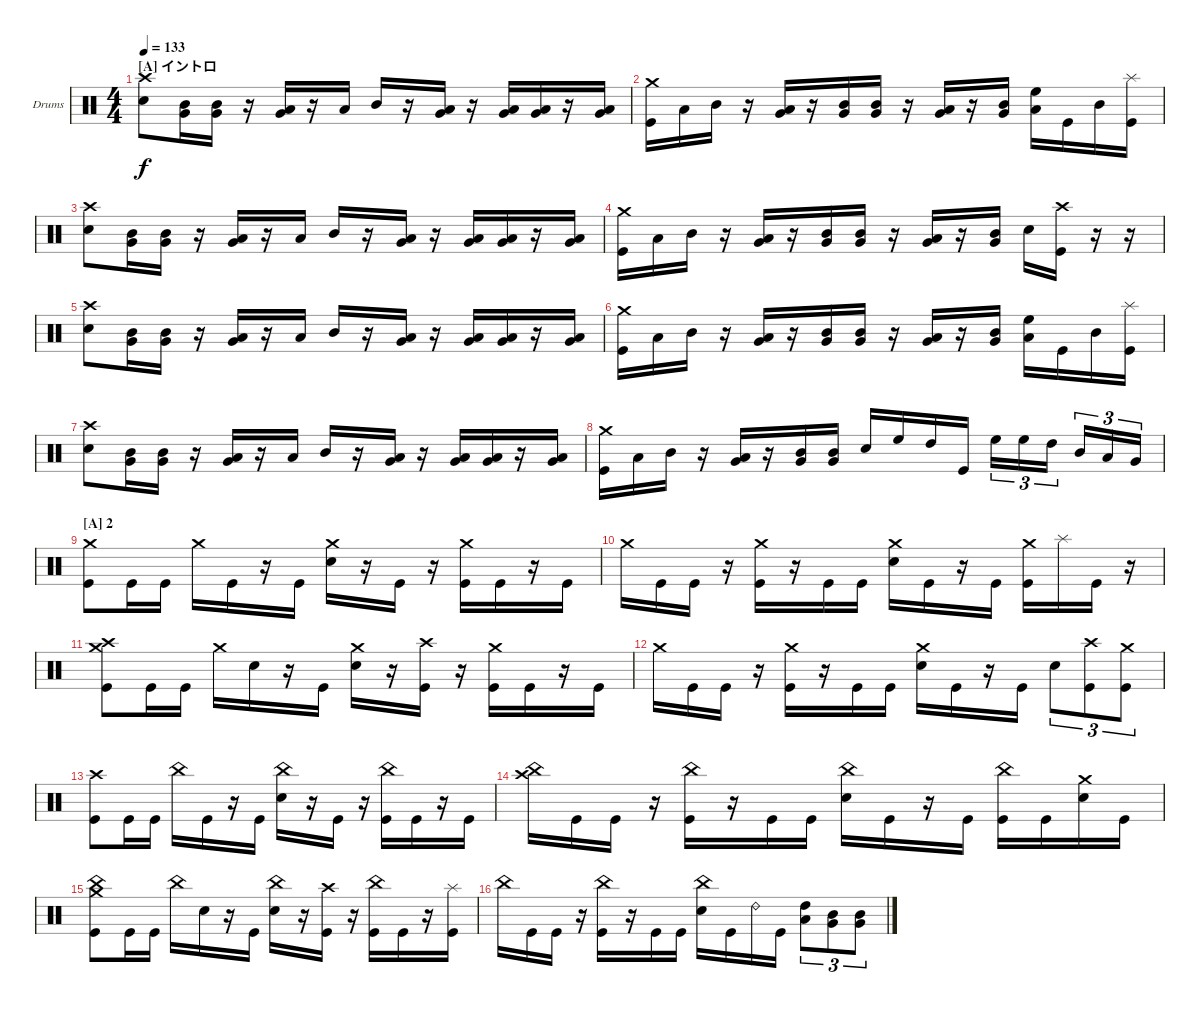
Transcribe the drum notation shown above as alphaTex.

\bracketExtendMode groupsimilarinstruments
\firstSystemTrackNameOrientation horizontal
\otherSystemsTrackNameOrientation horizontal
\track ("Ben Kazenoff" "Drums") {instrument percussion}
\staff {score}
\articulation defaults
\ts (4 4)
\beaming (8 2 2 2 2)
\section ("A" "イントロ")
\tempo 133
\clef neutral
\ks c
("Crash high (hit)" "Snare (hit) 2").8{dy f} ("Mid Tom (hit)" "Very Low Tom (hit)").16 ("Mid Tom (hit)" "Very Low Tom (hit)").16 r.16 ("Very Low Tom (hit)" "Low Tom (hit)").16 r.16 "Low Tom (hit)".16 "Mid Tom (hit)".16 r.16 ("Low Tom (hit)" "Very Low Tom (hit)").16 r.16 ("Low Tom (hit)" "Very Low Tom (hit)").16 ("Low Tom (hit)" "Very Low Tom (hit)").16 r.16 ("Low Tom (hit)" "Very Low Tom (hit)").16 |
("Crash medium (hit)" "Kick (hit)").16 "Low Tom (hit)".16 "Mid Tom (hit)".16 r.16 ("Low Tom (hit)" "Very Low Tom (hit)").16 r.16 ("Mid Tom (hit)" "Very Low Tom (hit)").16 ("Mid Tom (hit)" "Very Low Tom (hit)").16 r.16 ("Low Tom (hit)" "Very Low Tom (hit)").16 r.16 ("Mid Tom (hit)" "Very Low Tom (hit)").16 ("High Floor Tom (hit)" "Low Tom (hit)").16 "Kick (hit)".16 "Mid Tom (hit)".16 ("Splash (hit)" "Kick (hit)").16 |
("Crash high (hit)" "Snare (hit) 2").8 ("Mid Tom (hit)" "Very Low Tom (hit)").16 ("Mid Tom (hit)" "Very Low Tom (hit)").16 r.16 ("Very Low Tom (hit)" "Low Tom (hit)").16 r.16 "Low Tom (hit)".16 "Mid Tom (hit)".16 r.16 ("Low Tom (hit)" "Very Low Tom (hit)").16 r.16 ("Low Tom (hit)" "Very Low Tom (hit)").16 ("Low Tom (hit)" "Very Low Tom (hit)").16 r.16 ("Low Tom (hit)" "Very Low Tom (hit)").16 |
("Crash medium (hit)" "Kick (hit)").16 "Low Tom (hit)".16 "Mid Tom (hit)".16 r.16 ("Low Tom (hit)" "Very Low Tom (hit)").16 r.16 ("Mid Tom (hit)" "Very Low Tom (hit)").16 ("Mid Tom (hit)" "Very Low Tom (hit)").16 r.16 ("Low Tom (hit)" "Very Low Tom (hit)").16 r.16 ("Mid Tom (hit)" "Very Low Tom (hit)").16 "Snare (hit) 2".16 ("Crash high (hit)" "Kick (hit)").16 r.16 r.16 |
("Crash high (hit)" "Snare (hit) 2").8 ("Mid Tom (hit)" "Very Low Tom (hit)").16 ("Mid Tom (hit)" "Very Low Tom (hit)").16 r.16 ("Very Low Tom (hit)" "Low Tom (hit)").16 r.16 "Low Tom (hit)".16 "Mid Tom (hit)".16 r.16 ("Low Tom (hit)" "Very Low Tom (hit)").16 r.16 ("Low Tom (hit)" "Very Low Tom (hit)").16 ("Low Tom (hit)" "Very Low Tom (hit)").16 r.16 ("Low Tom (hit)" "Very Low Tom (hit)").16 |
("Crash medium (hit)" "Kick (hit)").16 "Low Tom (hit)".16 "Mid Tom (hit)".16 r.16 ("Low Tom (hit)" "Very Low Tom (hit)").16 r.16 ("Mid Tom (hit)" "Very Low Tom (hit)").16 ("Mid Tom (hit)" "Very Low Tom (hit)").16 r.16 ("Low Tom (hit)" "Very Low Tom (hit)").16 r.16 ("Mid Tom (hit)" "Very Low Tom (hit)").16 ("High Floor Tom (hit)" "Low Tom (hit)").16 "Kick (hit)".16 "Mid Tom (hit)".16 ("Splash (hit)" "Kick (hit)").16 |
("Crash high (hit)" "Snare (hit) 2").8 ("Mid Tom (hit)" "Very Low Tom (hit)").16 ("Mid Tom (hit)" "Very Low Tom (hit)").16 r.16 ("Very Low Tom (hit)" "Low Tom (hit)").16 r.16 "Low Tom (hit)".16 "Mid Tom (hit)".16 r.16 ("Low Tom (hit)" "Very Low Tom (hit)").16 r.16 ("Low Tom (hit)" "Very Low Tom (hit)").16 ("Low Tom (hit)" "Very Low Tom (hit)").16 r.16 ("Low Tom (hit)" "Very Low Tom (hit)").16 |
("Crash medium (hit)" "Kick (hit)").16 "Low Tom (hit)".16 "Mid Tom (hit)".16 r.16 ("Low Tom (hit)" "Very Low Tom (hit)").16 r.16 ("Mid Tom (hit)" "Very Low Tom (hit)").16 ("Mid Tom (hit)" "Very Low Tom (hit)").16 "Snare (hit) 2".16 "High Floor Tom (hit)".16 "High Tom (hit)".16 "Kick (hit)".16 "High Floor Tom (hit)".16{tu (3 2)} "High Floor Tom (hit)".16{tu (3 2)} "High Tom (hit)".16{tu (3 2)} "Mid Tom (hit)".16{tu (3 2)} "Low Tom (hit)".16{tu (3 2)} "Very Low Tom (hit)".16{tu (3 2)} |
\section ("A" "2")
("Crash medium (hit)" "Kick (hit)").8 "Kick (hit)".16 "Kick (hit)".16 "Crash medium (hit)".16 "Kick (hit)".16 r.16 "Kick (hit)".16 ("Crash medium (hit)" "Snare (hit) 2").16 r.16 "Kick (hit)".16 r.16 ("Crash medium (hit)" "Kick (hit)").16 "Kick (hit)".16 r.16 "Kick (hit)".16 |
"Crash medium (hit)".16 "Kick (hit)".16 "Kick (hit)".16 r.16 ("Crash medium (hit)" "Kick (hit)").16 r.16 "Kick (hit)".16 "Kick (hit)".16 ("Crash medium (hit)" "Snare (hit) 2").16 "Kick (hit)".16 r.16 "Kick (hit)".16 ("Kick (hit)" "Crash medium (hit)").16 "Splash (hit)".16 "Kick (hit)".16 r.16 |
("Crash medium (hit)" "Crash high (hit)" "Kick (hit)").8 "Kick (hit)".16 "Kick (hit)".16 "Crash medium (hit)".16 "Snare (hit) 2".16 r.16 "Kick (hit)".16 ("Crash medium (hit)" "Snare (hit) 2").16 r.16 ("Crash high (hit)" "Kick (hit)").16 r.16 ("Crash medium (hit)" "Kick (hit)").16 "Kick (hit)".16 r.16 "Kick (hit)".16 |
"Crash medium (hit)".16 "Kick (hit)".16 "Kick (hit)".16 r.16 ("Crash medium (hit)" "Kick (hit)").16 r.16 "Kick (hit)".16 "Kick (hit)".16 ("Crash medium (hit)" "Snare (hit) 2").16 "Kick (hit)".16 r.16 "Kick (hit)".16 "Snare (hit) 2".8{tu (3 2)} ("Kick (hit)" "Crash high (hit)").8{tu (3 2)} ("Kick (hit)" "Crash medium (hit)").8{tu (3 2)} |
("Crash high (hit)" "Kick (hit)").8 "Kick (hit)".16 "Kick (hit)".16 "China (hit)".16 "Kick (hit)".16 r.16 "Kick (hit)".16 ("China (hit)" "Snare (hit) 2").16 r.16 "Kick (hit)".16 r.16 ("China (hit)" "Kick (hit)").16 "Kick (hit)".16 r.16 "Kick (hit)".16 |
("China (hit)" "Crash high (hit)").16 "Kick (hit)".16 "Kick (hit)".16 r.16 ("China (hit)" "Kick (hit)").16 r.16 "Kick (hit)".16 "Kick (hit)".16 ("China (hit)" "Snare (hit) 2").16 "Kick (hit)".16 r.16 "Kick (hit)".16 ("Kick (hit)" "China (hit)").16 "Kick (hit)".16 ("Snare (hit) 2" "Crash medium (hit)").16 "Kick (hit)".16 |
("China (hit)" "Crash medium (hit)" "Kick (hit)").8 "Kick (hit)".16 "Kick (hit)".16 "China (hit)".16 "Snare (hit) 2".16 r.16 "Kick (hit)".16 ("China (hit)" "Snare (hit) 2").16 r.16 ("Crash high (hit)" "Kick (hit)").16 r.16 ("China (hit)" "Kick (hit)").16 "Kick (hit)".16 r.16 ("Splash (hit)" "Kick (hit)").16 |
"China (hit)".16 "Kick (hit)".16 "Kick (hit)".16 r.16 ("China (hit)" "Kick (hit)").16 r.16 "Kick (hit)".16 "Kick (hit)".16 ("Snare (hit) 2" "China (hit)").16 "Kick (hit)".16 "Ride (bell) 2".16 "Kick (hit)".16 ("Low Tom (hit)" "High Tom (hit)").8{tu (3 2)} ("Very Low Tom (hit)" "Mid Tom (hit)").8{tu (3 2)} ("Very Low Tom (hit)" "Mid Tom (hit)").8{tu (3 2)}
